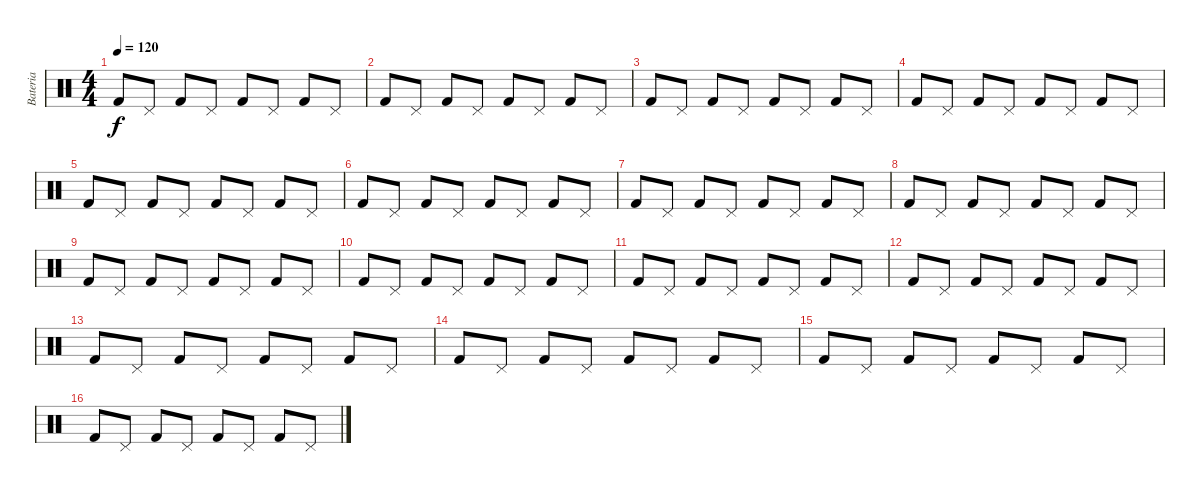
\track ("Bateria" "Bateria") {instrument percussion}
\staff {score}
\articulation defaults
\ts (4 4)
\tempo 120
\clef neutral
\ks c "Kick (hit) 2".8{dy f} "Pedal Hi-Hat (hit)".8 "Kick (hit) 2".8 "Pedal Hi-Hat (hit)".8 "Kick (hit) 2".8 "Pedal Hi-Hat (hit)".8 "Kick (hit) 2".8 "Pedal Hi-Hat (hit)".8
|
"Kick (hit) 2".8 "Pedal Hi-Hat (hit)".8 "Kick (hit) 2".8 "Pedal Hi-Hat (hit)".8 "Kick (hit) 2".8 "Pedal Hi-Hat (hit)".8 "Kick (hit) 2".8 "Pedal Hi-Hat (hit)".8 |
"Kick (hit) 2".8 "Pedal Hi-Hat (hit)".8 "Kick (hit) 2".8 "Pedal Hi-Hat (hit)".8 "Kick (hit) 2".8 "Pedal Hi-Hat (hit)".8 "Kick (hit) 2".8 "Pedal Hi-Hat (hit)".8 |
"Kick (hit) 2".8 "Pedal Hi-Hat (hit)".8 "Kick (hit) 2".8 "Pedal Hi-Hat (hit)".8 "Kick (hit) 2".8 "Pedal Hi-Hat (hit)".8 "Kick (hit) 2".8 "Pedal Hi-Hat (hit)".8 |
"Kick (hit) 2".8 "Pedal Hi-Hat (hit)".8 "Kick (hit) 2".8 "Pedal Hi-Hat (hit)".8 "Kick (hit) 2".8 "Pedal Hi-Hat (hit)".8 "Kick (hit) 2".8 "Pedal Hi-Hat (hit)".8 |
"Kick (hit) 2".8 "Pedal Hi-Hat (hit)".8 "Kick (hit) 2".8 "Pedal Hi-Hat (hit)".8 "Kick (hit) 2".8 "Pedal Hi-Hat (hit)".8 "Kick (hit) 2".8 "Pedal Hi-Hat (hit)".8 |
"Kick (hit) 2".8 "Pedal Hi-Hat (hit)".8 "Kick (hit) 2".8 "Pedal Hi-Hat (hit)".8 "Kick (hit) 2".8 "Pedal Hi-Hat (hit)".8 "Kick (hit) 2".8 "Pedal Hi-Hat (hit)".8 |
"Kick (hit) 2".8 "Pedal Hi-Hat (hit)".8 "Kick (hit) 2".8 "Pedal Hi-Hat (hit)".8 "Kick (hit) 2".8 "Pedal Hi-Hat (hit)".8 "Kick (hit) 2".8 "Pedal Hi-Hat (hit)".8 |
"Kick (hit) 2".8 "Pedal Hi-Hat (hit)".8 "Kick (hit) 2".8 "Pedal Hi-Hat (hit)".8 "Kick (hit) 2".8 "Pedal Hi-Hat (hit)".8 "Kick (hit) 2".8 "Pedal Hi-Hat (hit)".8 |
"Kick (hit) 2".8 "Pedal Hi-Hat (hit)".8 "Kick (hit) 2".8 "Pedal Hi-Hat (hit)".8 "Kick (hit) 2".8 "Pedal Hi-Hat (hit)".8 "Kick (hit) 2".8 "Pedal Hi-Hat (hit)".8 |
"Kick (hit) 2".8 "Pedal Hi-Hat (hit)".8 "Kick (hit) 2".8 "Pedal Hi-Hat (hit)".8 "Kick (hit) 2".8 "Pedal Hi-Hat (hit)".8 "Kick (hit) 2".8 "Pedal Hi-Hat (hit)".8 |
"Kick (hit) 2".8 "Pedal Hi-Hat (hit)".8 "Kick (hit) 2".8 "Pedal Hi-Hat (hit)".8 "Kick (hit) 2".8 "Pedal Hi-Hat (hit)".8 "Kick (hit) 2".8 "Pedal Hi-Hat (hit)".8 |
"Kick (hit) 2".8 "Pedal Hi-Hat (hit)".8 "Kick (hit) 2".8 "Pedal Hi-Hat (hit)".8 "Kick (hit) 2".8 "Pedal Hi-Hat (hit)".8 "Kick (hit) 2".8 "Pedal Hi-Hat (hit)".8 |
"Kick (hit) 2".8 "Pedal Hi-Hat (hit)".8 "Kick (hit) 2".8 "Pedal Hi-Hat (hit)".8 "Kick (hit) 2".8 "Pedal Hi-Hat (hit)".8 "Kick (hit) 2".8 "Pedal Hi-Hat (hit)".8 |
"Kick (hit) 2".8 "Pedal Hi-Hat (hit)".8 "Kick (hit) 2".8 "Pedal Hi-Hat (hit)".8 "Kick (hit) 2".8 "Pedal Hi-Hat (hit)".8 "Kick (hit) 2".8 "Pedal Hi-Hat (hit)".8 |
"Kick (hit) 2".8 "Pedal Hi-Hat (hit)".8 "Kick (hit) 2".8 "Pedal Hi-Hat (hit)".8 "Kick (hit) 2".8 "Pedal Hi-Hat (hit)".8 "Kick (hit) 2".8 "Pedal Hi-Hat (hit)".8
